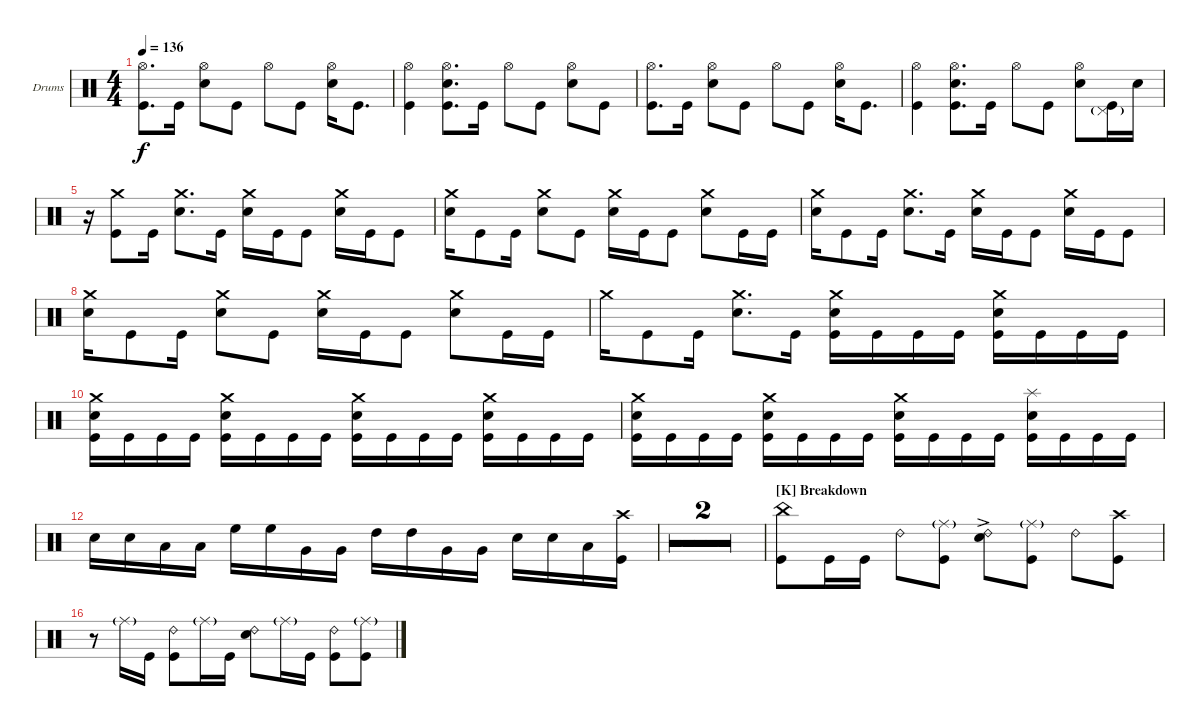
\defaultSystemsLayout 4
\bracketExtendMode groupsimilarinstruments
\firstSystemTrackNameOrientation horizontal
\otherSystemsTrackNameOrientation horizontal
\defaultBarNumberDisplay FirstOfSystem
\track ("Drumkit" "Drums") {multiBarRest instrument percussion}
\staff {score}
\articulation defaults
\ts (4 4)
\tempo 136
\clef neutral
\ks c
("Hi-Hat (open)" "Kick (hit)").8{d dy f} "Kick (hit)".16 ("Hi-Hat (open)" "Snare (hit) 2").8 "Kick (hit)".8 "Hi-Hat (open)".8 "Kick (hit)".8 ("Hi-Hat (open)" "Snare (hit) 2").16 "Kick (hit)".8{d} |
("Hi-Hat (open)" "Kick (hit)").4 ("Hi-Hat (open)" "Snare (hit) 2" "Kick (hit)").8{d} "Kick (hit)".16 "Hi-Hat (open)".8 "Kick (hit)".8 ("Hi-Hat (open)" "Snare (hit) 2").8 "Kick (hit)".8 |
("Hi-Hat (open)" "Kick (hit)").8{d} "Kick (hit)".16 ("Hi-Hat (open)" "Snare (hit) 2").8 "Kick (hit)".8 "Hi-Hat (open)".8 "Kick (hit)".8 ("Hi-Hat (open)" "Snare (hit) 2").16 "Kick (hit)".8{d} |
("Hi-Hat (open)" "Kick (hit)").4 ("Hi-Hat (open)" "Snare (hit) 2" "Kick (hit)").8{d} "Kick (hit)".16 "Hi-Hat (open)".8 "Kick (hit)".8 ("Hi-Hat (open)" "Snare (hit) 2").8 ("Kick (hit)" "Pedal Hi-Hat (hit)"{g}).16 "Snare (hit) 2".16 |
r.16 ("Kick (hit)" "Crash medium (hit)").8 "Kick (hit)".16 ("Snare (hit) 2" "Crash medium (hit)").8{d} "Kick (hit)".16 ("Snare (hit) 2" "Crash medium (hit)").16 "Kick (hit)".16 "Kick (hit)".8 ("Snare (hit) 2" "Crash medium (hit)").16 "Kick (hit)".16 "Kick (hit)".8 |
("Snare (hit) 2" "Crash medium (hit)").16 "Kick (hit)".8 "Kick (hit)".16 ("Snare (hit) 2" "Crash medium (hit)").8 "Kick (hit)".8 ("Snare (hit) 2" "Crash medium (hit)").16 "Kick (hit)".16 "Kick (hit)".8 ("Snare (hit) 2" "Crash medium (hit)").8 "Kick (hit)".16 "Kick (hit)".16 |
("Snare (hit) 2" "Crash medium (hit)").16 "Kick (hit)".8 "Kick (hit)".16 ("Snare (hit) 2" "Crash medium (hit)").8{d} "Kick (hit)".16 ("Snare (hit) 2" "Crash medium (hit)").16 "Kick (hit)".16 "Kick (hit)".8 ("Snare (hit) 2" "Crash medium (hit)").16 "Kick (hit)".16 "Kick (hit)".8 |
("Snare (hit) 2" "Crash medium (hit)").16 "Kick (hit)".8 "Kick (hit)".16 ("Snare (hit) 2" "Crash medium (hit)").8 "Kick (hit)".8 ("Snare (hit) 2" "Crash medium (hit)").16 "Kick (hit)".16 "Kick (hit)".8 ("Snare (hit) 2" "Crash medium (hit)").8 "Kick (hit)".16 "Kick (hit)".16 |
"Crash medium (hit)".16 "Kick (hit)".8 "Kick (hit)".16 ("Snare (hit) 2" "Crash medium (hit)").8{d} "Kick (hit)".16 ("Snare (hit) 2" "Crash medium (hit)" "Kick (hit)").16 "Kick (hit)".16 "Kick (hit)".16 "Kick (hit)".16 ("Snare (hit) 2" "Crash medium (hit)" "Kick (hit)").16 "Kick (hit)".16 "Kick (hit)".16 "Kick (hit)".16 |
("Snare (hit) 2" "Crash medium (hit)" "Kick (hit)").16 "Kick (hit)".16 "Kick (hit)".16 "Kick (hit)".16 ("Snare (hit) 2" "Crash medium (hit)" "Kick (hit)").16 "Kick (hit)".16 "Kick (hit)".16 "Kick (hit)".16 ("Snare (hit) 2" "Crash medium (hit)" "Kick (hit)").16 "Kick (hit)".16 "Kick (hit)".16 "Kick (hit)".16 ("Snare (hit) 2" "Crash medium (hit)" "Kick (hit)").16 "Kick (hit)".16 "Kick (hit)".16 "Kick (hit)".16 |
("Snare (hit) 2" "Crash medium (hit)" "Kick (hit)").16 "Kick (hit)".16 "Kick (hit)".16 "Kick (hit)".16 ("Snare (hit) 2" "Crash medium (hit)" "Kick (hit)").16 "Kick (hit)".16 "Kick (hit)".16 "Kick (hit)".16 ("Snare (hit) 2" "Crash medium (hit)" "Kick (hit)").16 "Kick (hit)".16 "Kick (hit)".16 "Kick (hit)".16 ("Snare (hit) 2" "Kick (hit)" "Splash (hit)").16 "Kick (hit)".16 "Kick (hit)".16 "Kick (hit)".16 |
"Snare (hit) 2".16 "Snare (hit) 2".16 "Low Tom (hit)".16 "Low Tom (hit)".16 "High Floor Tom (hit)".16 "High Floor Tom (hit)".16 "Very Low Tom (hit)".16 "Very Low Tom (hit)".16 "High Tom (hit)".16 "High Tom (hit)".16 "Very Low Tom (hit)".16 "Very Low Tom (hit)".16 "Snare (hit) 2".16 "Snare (hit) 2".16 "Low Tom (hit)".16 ("Kick (hit)" "Crash high (hit)").16 |
r.1 |
r.1 |
\section ("K" "Breakdown")
("Kick (hit)" "China (hit)").8 "Kick (hit)".16 "Kick (hit)".16 "Ride (bell) 2".8 ("Kick (hit)" "Ride (middle)"{g}).8 ("Ride (bell) 2" "Snare (hit) 2"{ac}).8 ("Kick (hit)" "Ride (middle)"{g}).8 "Ride (bell) 2".8 ("Kick (hit)" "Crash high (hit)").8 |
r.8 "Ride (middle)"{g}.16 "Kick (hit)".16 ("Ride (bell) 2" "Kick (hit)").8 "Ride (middle)"{g}.16 "Kick (hit)".16 ("Ride (bell) 2" "Snare (hit) 2").8 "Ride (middle)"{g}.16 "Kick (hit)".16 ("Ride (bell) 2" "Kick (hit)").8 ("Kick (hit)" "Ride (middle)"{g}).8
